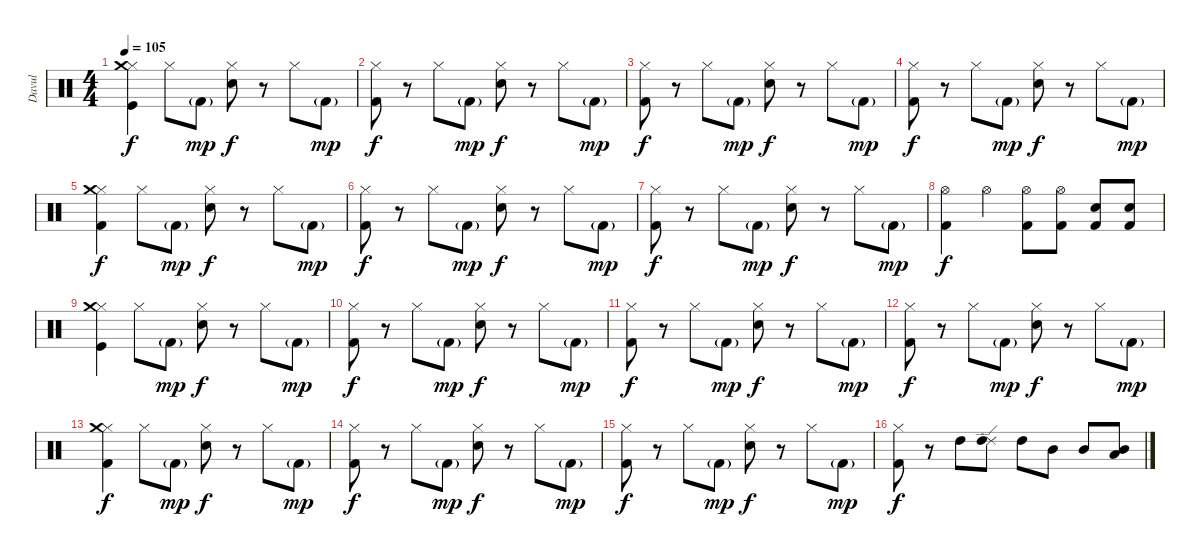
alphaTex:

\track ("Davul" "Davul") {instrument percussion}
\staff {score}
\articulation defaults
\ts (4 4)
\tempo 105
\clef neutral
\ks c
("Hi-Hat (closed)" "Kick (hit)" "Crash medium (hit)").4{dy f} "Hi-Hat (closed)".8 "Kick (hit) 2"{g}.8{dy mp} ("Hi-Hat (closed)" "Electric Snare (hit)").8{dy f} r.8 "Hi-Hat (closed)".8 "Kick (hit) 2"{g}.8{dy mp} |
("Hi-Hat (closed)" "Kick (hit) 2").8{dy f} r.8 "Hi-Hat (closed)".8 "Kick (hit) 2"{g}.8{dy mp} ("Hi-Hat (closed)" "Electric Snare (hit)").8{dy f} r.8 "Hi-Hat (closed)".8 "Kick (hit) 2"{g}.8{dy mp} |
("Hi-Hat (closed)" "Kick (hit) 2").8{dy f} r.8 "Hi-Hat (closed)".8 "Kick (hit) 2"{g}.8{dy mp} ("Hi-Hat (closed)" "Electric Snare (hit)").8{dy f} r.8 "Hi-Hat (closed)".8 "Kick (hit) 2"{g}.8{dy mp} |
("Hi-Hat (closed)" "Kick (hit) 2").8{dy f} r.8 "Hi-Hat (closed)".8 "Kick (hit) 2"{g}.8{dy mp} ("Hi-Hat (closed)" "Electric Snare (hit)").8{dy f} r.8 "Hi-Hat (closed)".8 "Kick (hit) 2"{g}.8{dy mp} |
("Hi-Hat (closed)" "Kick (hit) 2" "Crash medium (hit)").4{dy f} "Hi-Hat (closed)".8 "Kick (hit) 2"{g}.8{dy mp} ("Hi-Hat (closed)" "Electric Snare (hit)").8{dy f} r.8 "Hi-Hat (closed)".8 "Kick (hit) 2"{g}.8{dy mp} |
("Hi-Hat (closed)" "Kick (hit) 2").8{dy f} r.8 "Hi-Hat (closed)".8 "Kick (hit) 2"{g}.8{dy mp} ("Hi-Hat (closed)" "Electric Snare (hit)").8{dy f} r.8 "Hi-Hat (closed)".8 "Kick (hit) 2"{g}.8{dy mp} |
("Hi-Hat (closed)" "Kick (hit) 2").8{dy f} r.8 "Hi-Hat (closed)".8 "Kick (hit) 2"{g}.8{dy mp} ("Hi-Hat (closed)" "Electric Snare (hit)").8{dy f} r.8 "Hi-Hat (closed)".8 "Kick (hit) 2"{g}.8{dy mp} |
("Hi-Hat (open)" "Kick (hit) 2").4{dy f} "Hi-Hat (open)".4 ("Kick (hit) 2" "Hi-Hat (open)").8 ("Kick (hit) 2" "Hi-Hat (open)").8 ("Kick (hit) 2" "Snare (hit) 2").8 ("Kick (hit) 2" "Snare (hit) 2").8 |
("Hi-Hat (closed)" "Kick (hit)" "Crash medium (hit)").4 "Hi-Hat (closed)".8 "Kick (hit) 2"{g}.8{dy mp} ("Hi-Hat (closed)" "Electric Snare (hit)").8{dy f} r.8 "Hi-Hat (closed)".8 "Kick (hit) 2"{g}.8{dy mp} |
("Hi-Hat (closed)" "Kick (hit) 2").8{dy f} r.8 "Hi-Hat (closed)".8 "Kick (hit) 2"{g}.8{dy mp} ("Hi-Hat (closed)" "Electric Snare (hit)").8{dy f} r.8 "Hi-Hat (closed)".8 "Kick (hit) 2"{g}.8{dy mp} |
("Hi-Hat (closed)" "Kick (hit) 2").8{dy f} r.8 "Hi-Hat (closed)".8 "Kick (hit) 2"{g}.8{dy mp} ("Hi-Hat (closed)" "Electric Snare (hit)").8{dy f} r.8 "Hi-Hat (closed)".8 "Kick (hit) 2"{g}.8{dy mp} |
("Hi-Hat (closed)" "Kick (hit) 2").8{dy f} r.8 "Hi-Hat (closed)".8 "Kick (hit) 2"{g}.8{dy mp} ("Hi-Hat (closed)" "Electric Snare (hit)").8{dy f} r.8 "Hi-Hat (closed)".8 "Kick (hit) 2"{g}.8{dy mp} |
("Hi-Hat (closed)" "Kick (hit) 2" "Crash medium (hit)").4{dy f} "Hi-Hat (closed)".8 "Kick (hit) 2"{g}.8{dy mp} ("Hi-Hat (closed)" "Electric Snare (hit)").8{dy f} r.8 "Hi-Hat (closed)".8 "Kick (hit) 2"{g}.8{dy mp} |
("Hi-Hat (closed)" "Kick (hit) 2").8{dy f} r.8 "Hi-Hat (closed)".8 "Kick (hit) 2"{g}.8{dy mp} ("Hi-Hat (closed)" "Electric Snare (hit)").8{dy f} r.8 "Hi-Hat (closed)".8 "Kick (hit) 2"{g}.8{dy mp} |
("Hi-Hat (closed)" "Kick (hit) 2").8{dy f} r.8 "Hi-Hat (closed)".8 "Kick (hit) 2"{g}.8{dy mp} ("Hi-Hat (closed)" "Electric Snare (hit)").8{dy f} r.8 "Hi-Hat (closed)".8 "Kick (hit) 2"{g}.8{dy mp} |
("Hi-Hat (closed)" "Kick (hit) 2").8{dy f} r.8 "High Tom (hit)".8 ("Ride (edge) 2" "High Tom (hit)").8 "High Tom (hit)".8 "Mid Tom (hit)".8 "Mid Tom (hit)".8 ("Low Floor Tom (hit)" "Mid Tom (hit)").8
